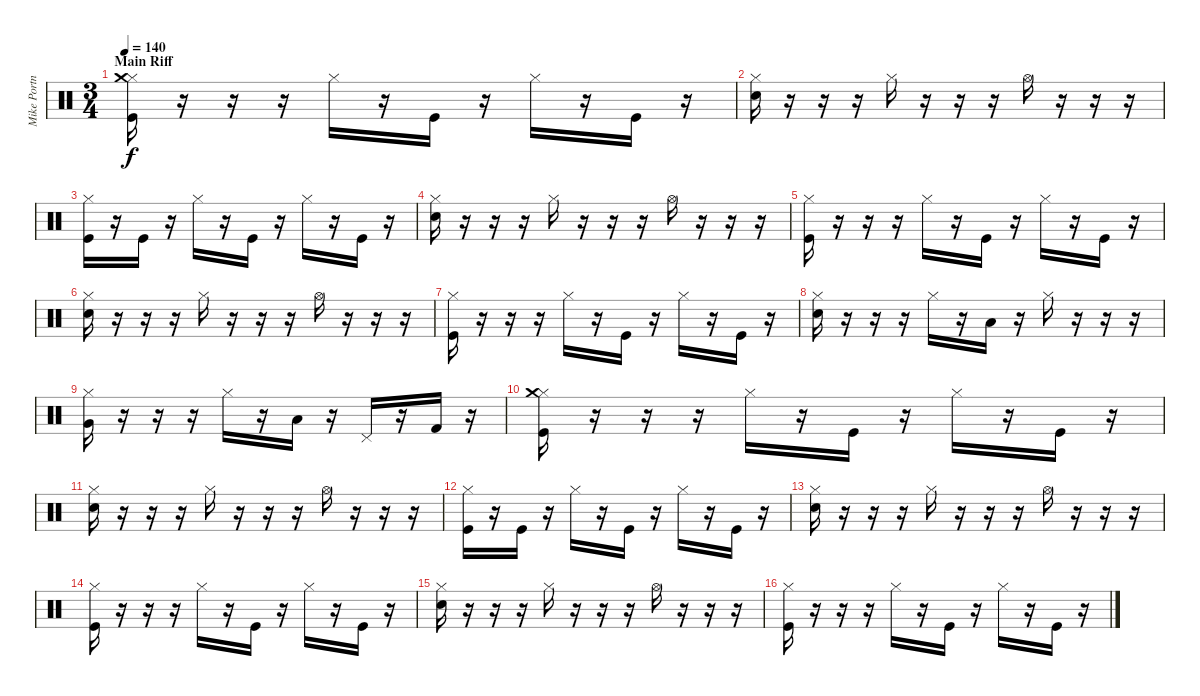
\track ("Mike Portnoy" "Mike Portn") {instrument percussion}
\staff {score}
\articulation defaults
\ts (3 4)
\section ("" "Main Riff")
\tempo 140
\clef neutral
\ks c
("Kick (hit)" "Hi-Hat (closed)" "Crash medium (hit)").16{dy f} r.16 r.16 r.16 "Hi-Hat (closed)".16 r.16 "Kick (hit)".16 r.16 "Hi-Hat (closed)".16 r.16 "Kick (hit)".16 r.16 |
("Electric Snare (hit)" "Hi-Hat (closed)").16 r.16 r.16 r.16 "Hi-Hat (closed)".16 r.16 r.16 r.16 "Hi-Hat (open)".16 r.16 r.16 r.16 |
("Kick (hit)" "Hi-Hat (closed)").16 r.16 "Kick (hit)".16 r.16 "Hi-Hat (closed)".16 r.16 "Kick (hit)".16 r.16 "Hi-Hat (closed)".16 r.16 "Kick (hit)".16 r.16 |
("Electric Snare (hit)" "Hi-Hat (closed)").16 r.16 r.16 r.16 "Hi-Hat (closed)".16 r.16 r.16 r.16 "Hi-Hat (open)".16 r.16 r.16 r.16 |
("Kick (hit)" "Hi-Hat (closed)").16 r.16 r.16 r.16 "Hi-Hat (closed)".16 r.16 "Kick (hit)".16 r.16 "Hi-Hat (closed)".16 r.16 "Kick (hit)".16 r.16 |
("Electric Snare (hit)" "Hi-Hat (closed)").16 r.16 r.16 r.16 "Hi-Hat (closed)".16 r.16 r.16 r.16 "Hi-Hat (open)".16 r.16 r.16 r.16 |
("Kick (hit)" "Hi-Hat (closed)").16 r.16 r.16 r.16 "Hi-Hat (closed)".16 r.16 "Kick (hit)".16 r.16 "Hi-Hat (closed)".16 r.16 "Kick (hit)".16 r.16 |
("Electric Snare (hit)" "Hi-Hat (closed)").16 r.16 r.16 r.16 "Hi-Hat (closed)".16 r.16 "Low Tom (hit)".16 r.16 "Hi-Hat (closed)".16 r.16 r.16 r.16 |
("Very Low Tom (hit)" "Hi-Hat (closed)").16 r.16 r.16 r.16 "Hi-Hat (closed)".16 r.16 "Low Floor Tom (hit)".16 r.16 "Pedal Hi-Hat (hit)".16 r.16 "Kick (hit) 2".16 r.16 |
("Kick (hit)" "Hi-Hat (closed)" "Crash medium (hit)").16 r.16 r.16 r.16 "Hi-Hat (closed)".16 r.16 "Kick (hit)".16 r.16 "Hi-Hat (closed)".16 r.16 "Kick (hit)".16 r.16 |
("Electric Snare (hit)" "Hi-Hat (closed)").16 r.16 r.16 r.16 "Hi-Hat (closed)".16 r.16 r.16 r.16 "Hi-Hat (open)".16 r.16 r.16 r.16 |
("Kick (hit)" "Hi-Hat (closed)").16 r.16 "Kick (hit)".16 r.16 "Hi-Hat (closed)".16 r.16 "Kick (hit)".16 r.16 "Hi-Hat (closed)".16 r.16 "Kick (hit)".16 r.16 |
("Electric Snare (hit)" "Hi-Hat (closed)").16 r.16 r.16 r.16 "Hi-Hat (closed)".16 r.16 r.16 r.16 "Hi-Hat (open)".16 r.16 r.16 r.16 |
("Kick (hit)" "Hi-Hat (closed)").16 r.16 r.16 r.16 "Hi-Hat (closed)".16 r.16 "Kick (hit)".16 r.16 "Hi-Hat (closed)".16 r.16 "Kick (hit)".16 r.16 |
("Electric Snare (hit)" "Hi-Hat (closed)").16 r.16 r.16 r.16 "Hi-Hat (closed)".16 r.16 r.16 r.16 "Hi-Hat (open)".16 r.16 r.16 r.16 |
("Kick (hit)" "Hi-Hat (closed)").16 r.16 r.16 r.16 "Hi-Hat (closed)".16 r.16 "Kick (hit)".16 r.16 "Hi-Hat (closed)".16 r.16 "Kick (hit)".16 r.16
